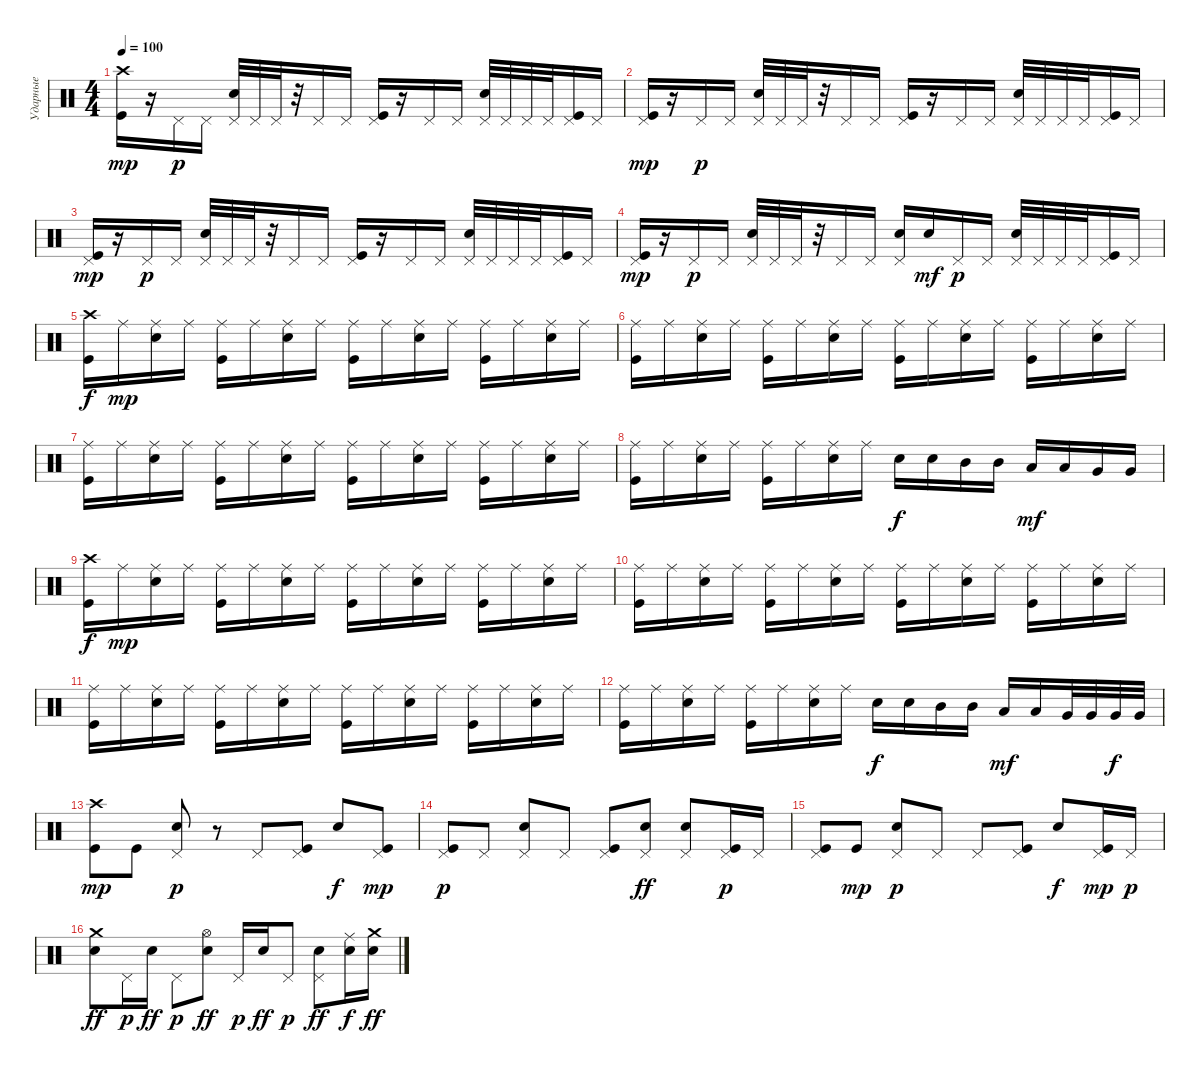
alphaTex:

\track ("Ударные" "Ударные") {instrument percussion}
\staff {score}
\articulation defaults
\ts (4 4)
\tempo 100
\clef neutral
\ks c
("Crash high (hit)" "Kick (hit)").16{dy mp} r.16 "Pedal Hi-Hat (hit)".16{dy p} "Pedal Hi-Hat (hit)".16 ("Pedal Hi-Hat (hit)" "Snare (hit) 2").32 "Pedal Hi-Hat (hit)".32 "Pedal Hi-Hat (hit)".32 r.32 "Pedal Hi-Hat (hit)".16 "Pedal Hi-Hat (hit)".16 ("Pedal Hi-Hat (hit)" "Kick (hit)").16 r.16 "Pedal Hi-Hat (hit)".16 "Pedal Hi-Hat (hit)".16 ("Pedal Hi-Hat (hit)" "Snare (hit) 2").32 "Pedal Hi-Hat (hit)".32 "Pedal Hi-Hat (hit)".32 "Pedal Hi-Hat (hit)".32 ("Pedal Hi-Hat (hit)" "Kick (hit)").16 "Pedal Hi-Hat (hit)".16 |
("Pedal Hi-Hat (hit)" "Kick (hit)").16{dy mp} r.16 "Pedal Hi-Hat (hit)".16{dy p} "Pedal Hi-Hat (hit)".16 ("Pedal Hi-Hat (hit)" "Snare (hit) 2").32 "Pedal Hi-Hat (hit)".32 "Pedal Hi-Hat (hit)".32 r.32 "Pedal Hi-Hat (hit)".16 "Pedal Hi-Hat (hit)".16 ("Pedal Hi-Hat (hit)" "Kick (hit)").16 r.16 "Pedal Hi-Hat (hit)".16 "Pedal Hi-Hat (hit)".16 ("Pedal Hi-Hat (hit)" "Snare (hit) 2").32 "Pedal Hi-Hat (hit)".32 "Pedal Hi-Hat (hit)".32 "Pedal Hi-Hat (hit)".32 ("Pedal Hi-Hat (hit)" "Kick (hit)").16 "Pedal Hi-Hat (hit)".16 |
("Pedal Hi-Hat (hit)" "Kick (hit)").16{dy mp} r.16 "Pedal Hi-Hat (hit)".16{dy p} "Pedal Hi-Hat (hit)".16 ("Pedal Hi-Hat (hit)" "Snare (hit) 2").32 "Pedal Hi-Hat (hit)".32 "Pedal Hi-Hat (hit)".32 r.32 "Pedal Hi-Hat (hit)".16 "Pedal Hi-Hat (hit)".16 ("Pedal Hi-Hat (hit)" "Kick (hit)").16 r.16 "Pedal Hi-Hat (hit)".16 "Pedal Hi-Hat (hit)".16 ("Pedal Hi-Hat (hit)" "Snare (hit) 2").32 "Pedal Hi-Hat (hit)".32 "Pedal Hi-Hat (hit)".32 "Pedal Hi-Hat (hit)".32 ("Pedal Hi-Hat (hit)" "Kick (hit)").16 "Pedal Hi-Hat (hit)".16 |
("Pedal Hi-Hat (hit)" "Kick (hit)").16{dy mp} r.16 "Pedal Hi-Hat (hit)".16{dy p} "Pedal Hi-Hat (hit)".16 ("Pedal Hi-Hat (hit)" "Snare (hit) 2").32 "Pedal Hi-Hat (hit)".32 "Pedal Hi-Hat (hit)".32 r.32 "Pedal Hi-Hat (hit)".16 "Pedal Hi-Hat (hit)".16 ("Pedal Hi-Hat (hit)" "Snare (hit) 2").16 "Snare (hit) 2".16{dy mf} "Pedal Hi-Hat (hit)".16{dy p} "Pedal Hi-Hat (hit)".16 ("Pedal Hi-Hat (hit)" "Snare (hit) 2").32 "Pedal Hi-Hat (hit)".32 "Pedal Hi-Hat (hit)".32 "Pedal Hi-Hat (hit)".32 ("Pedal Hi-Hat (hit)" "Kick (hit)").16 "Pedal Hi-Hat (hit)".16 |
("Crash high (hit)" "Kick (hit)").16{dy f} "Ride (middle)".16{dy mp} ("Ride (middle)" "Snare (hit) 2").16 "Ride (middle)".16 ("Ride (middle)" "Kick (hit)").16 "Ride (middle)".16 ("Ride (middle)" "Snare (hit) 2").16 "Ride (middle)".16 ("Ride (middle)" "Kick (hit)").16 "Ride (middle)".16 ("Ride (middle)" "Snare (hit) 2").16 "Ride (middle)".16 ("Ride (middle)" "Kick (hit)").16 "Ride (middle)".16 ("Ride (middle)" "Snare (hit) 2").16 "Ride (middle)".16 |
("Ride (middle)" "Kick (hit)").16 "Ride (middle)".16 ("Ride (middle)" "Snare (hit) 2").16 "Ride (middle)".16 ("Ride (middle)" "Kick (hit)").16 "Ride (middle)".16 ("Ride (middle)" "Snare (hit) 2").16 "Ride (middle)".16 ("Ride (middle)" "Kick (hit)").16 "Ride (middle)".16 ("Ride (middle)" "Snare (hit) 2").16 "Ride (middle)".16 ("Ride (middle)" "Kick (hit)").16 "Ride (middle)".16 ("Ride (middle)" "Snare (hit) 2").16 "Ride (middle)".16 |
("Ride (middle)" "Kick (hit)").16 "Ride (middle)".16 ("Ride (middle)" "Snare (hit) 2").16 "Ride (middle)".16 ("Ride (middle)" "Kick (hit)").16 "Ride (middle)".16 ("Ride (middle)" "Snare (hit) 2").16 "Ride (middle)".16 ("Ride (middle)" "Kick (hit)").16 "Ride (middle)".16 ("Ride (middle)" "Snare (hit) 2").16 "Ride (middle)".16 ("Ride (middle)" "Kick (hit)").16 "Ride (middle)".16 ("Ride (middle)" "Snare (hit) 2").16 "Ride (middle)".16 |
("Ride (middle)" "Kick (hit)").16 "Ride (middle)".16 ("Ride (middle)" "Snare (hit) 2").16 "Ride (middle)".16 ("Ride (middle)" "Kick (hit)").16 "Ride (middle)".16 ("Ride (middle)" "Snare (hit) 2").16 "Ride (middle)".16 "Snare (hit) 2".16{dy f} "Snare (hit) 2".16 "Mid Tom (hit)".16 "Mid Tom (hit)".16 "Low Tom (hit)".16{dy mf} "Low Tom (hit)".16 "Very Low Tom (hit)".16 "Very Low Tom (hit)".16 |
("Crash high (hit)" "Kick (hit)").16{dy f} "Ride (middle)".16{dy mp} ("Ride (middle)" "Snare (hit) 2").16 "Ride (middle)".16 ("Ride (middle)" "Kick (hit)").16 "Ride (middle)".16 ("Ride (middle)" "Snare (hit) 2").16 "Ride (middle)".16 ("Ride (middle)" "Kick (hit)").16 "Ride (middle)".16 ("Ride (middle)" "Snare (hit) 2").16 "Ride (middle)".16 ("Ride (middle)" "Kick (hit)").16 "Ride (middle)".16 ("Ride (middle)" "Snare (hit) 2").16 "Ride (middle)".16 |
("Ride (middle)" "Kick (hit)").16 "Ride (middle)".16 ("Ride (middle)" "Snare (hit) 2").16 "Ride (middle)".16 ("Ride (middle)" "Kick (hit)").16 "Ride (middle)".16 ("Ride (middle)" "Snare (hit) 2").16 "Ride (middle)".16 ("Ride (middle)" "Kick (hit)").16 "Ride (middle)".16 ("Ride (middle)" "Snare (hit) 2").16 "Ride (middle)".16 ("Ride (middle)" "Kick (hit)").16 "Ride (middle)".16 ("Ride (middle)" "Snare (hit) 2").16 "Ride (middle)".16 |
("Ride (middle)" "Kick (hit)").16 "Ride (middle)".16 ("Ride (middle)" "Snare (hit) 2").16 "Ride (middle)".16 ("Ride (middle)" "Kick (hit)").16 "Ride (middle)".16 ("Ride (middle)" "Snare (hit) 2").16 "Ride (middle)".16 ("Ride (middle)" "Kick (hit)").16 "Ride (middle)".16 ("Ride (middle)" "Snare (hit) 2").16 "Ride (middle)".16 ("Ride (middle)" "Kick (hit)").16 "Ride (middle)".16 ("Ride (middle)" "Snare (hit) 2").16 "Ride (middle)".16 |
("Ride (middle)" "Kick (hit)").16 "Ride (middle)".16 ("Ride (middle)" "Snare (hit) 2").16 "Ride (middle)".16 ("Ride (middle)" "Kick (hit)").16 "Ride (middle)".16 ("Ride (middle)" "Snare (hit) 2").16 "Ride (middle)".16 "Snare (hit) 2".16{dy f} "Snare (hit) 2".16 "Mid Tom (hit)".16 "Mid Tom (hit)".16 "Low Tom (hit)".16{dy mf} "Low Tom (hit)".16 "Very Low Tom (hit)".32 "Very Low Tom (hit)".32 "Very Low Tom (hit)".32{dy f} "Very Low Tom (hit)".32 |
("Crash high (hit)" "Kick (hit)").8{dy mp} "Kick (hit)".8 ("Pedal Hi-Hat (hit)" "Snare (hit) 2").8{dy p} r.8 "Pedal Hi-Hat (hit)".8 ("Pedal Hi-Hat (hit)" "Kick (hit)").8 "Snare (hit) 2".8{dy f} ("Pedal Hi-Hat (hit)" "Kick (hit)").8{dy mp} |
("Pedal Hi-Hat (hit)" "Kick (hit)").8{dy p} "Pedal Hi-Hat (hit)".8 ("Pedal Hi-Hat (hit)" "Snare (hit) 2").8 "Pedal Hi-Hat (hit)".8 ("Pedal Hi-Hat (hit)" "Kick (hit)").8 ("Pedal Hi-Hat (hit)" "Electric Snare (hit)").8{dy ff} ("Pedal Hi-Hat (hit)" "Electric Snare (hit)").8 ("Pedal Hi-Hat (hit)" "Kick (hit)").16{dy p} "Pedal Hi-Hat (hit)".16 |
("Pedal Hi-Hat (hit)" "Kick (hit)").8 "Kick (hit)".8{dy mp} ("Pedal Hi-Hat (hit)" "Snare (hit) 2").8{dy p} "Pedal Hi-Hat (hit)".8 "Pedal Hi-Hat (hit)".8 ("Pedal Hi-Hat (hit)" "Kick (hit)").8 "Snare (hit) 2".8{dy f} ("Pedal Hi-Hat (hit)" "Kick (hit)").16{dy mp} "Pedal Hi-Hat (hit)".16{dy p} |
("Crash medium (hit)" "Snare (hit) 2").8{dy ff} "Pedal Hi-Hat (hit)".16{dy p} "Snare (hit) 2".16{dy ff} "Pedal Hi-Hat (hit)".8{dy p} ("Hi-Hat (open)" "Snare (hit) 2").8{dy ff} "Pedal Hi-Hat (hit)".16{dy p} "Snare (hit) 2".16{dy ff} "Pedal Hi-Hat (hit)".8{dy p} ("Pedal Hi-Hat (hit)" "Snare (hit) 2").8{dy ff} ("Snare (hit) 2" "Ride (middle)").16{dy f} ("Crash medium (hit)" "Snare (hit) 2").16{dy ff}
